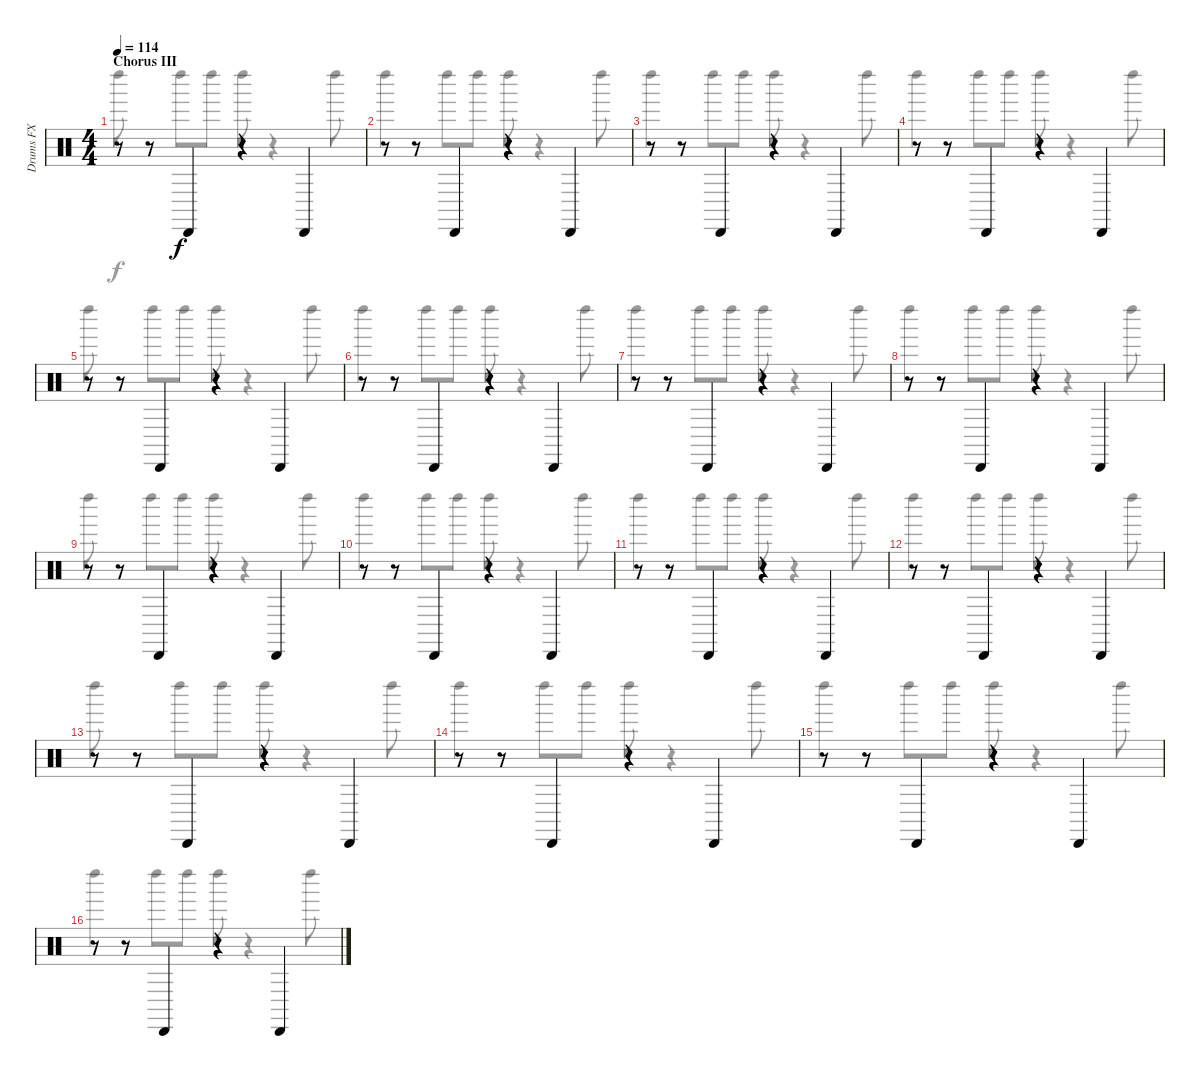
\track ("Drums FX" "Drums FX") {instrument percussion}
\staff {score}
\articulation defaults
\voice
\ts (4 4)
\section ("" "Chorus III")
\tempo 114
\clef neutral
\ks c
r.8{dy f} r.8 "Cabasa (hit)".4 r.4 "Cabasa (hit)".4 |
r.8 r.8 "Cabasa (hit)".4 r.4 "Cabasa (hit)".4 |
r.8 r.8 "Cabasa (hit)".4 r.4 "Cabasa (hit)".4 |
r.8 r.8 "Cabasa (hit)".4 r.4 "Cabasa (hit)".4 |
r.8 r.8 "Cabasa (hit)".4 r.4 "Cabasa (hit)".4 |
r.8 r.8 "Cabasa (hit)".4 r.4 "Cabasa (hit)".4 |
r.8 r.8 "Cabasa (hit)".4 r.4 "Cabasa (hit)".4 |
r.8 r.8 "Cabasa (hit)".4 r.4 "Cabasa (hit)".4 |
r.8 r.8 "Cabasa (hit)".4 r.4 "Cabasa (hit)".4 |
r.8 r.8 "Cabasa (hit)".4 r.4 "Cabasa (hit)".4 |
r.8 r.8 "Cabasa (hit)".4 r.4 "Cabasa (hit)".4 |
r.8 r.8 "Cabasa (hit)".4 r.4 "Cabasa (hit)".4 |
r.8 r.8 "Cabasa (hit)".4 r.4 "Cabasa (hit)".4 |
r.8 r.8 "Cabasa (hit)".4 r.4 "Cabasa (hit)".4 |
r.8 r.8 "Cabasa (hit)".4 r.4 "Cabasa (hit)".4 |
r.8 r.8 "Cabasa (hit)".4 r.4 "Cabasa (hit)".4
\voice
\clef neutral
\ottava regular
\simile none
\ks c "Left Maraca (hit)".8{dy f}
r.8 "Left Maraca (hit)".8 "Left Maraca (hit)".8 "Left Maraca (hit)".8 r.4 "Left Maraca (hit)".8 |
"Left Maraca (hit)".4 "Left Maraca (hit)".8 "Left Maraca (hit)".8 "Left Maraca (hit)".8 r.4 "Left Maraca (hit)".8 |
"Left Maraca (hit)".4 "Left Maraca (hit)".8 "Left Maraca (hit)".8 "Left Maraca (hit)".8 r.4 "Left Maraca (hit)".8 |
"Left Maraca (hit)".4 "Left Maraca (hit)".8 "Left Maraca (hit)".8 "Left Maraca (hit)".8 r.4 "Left Maraca (hit)".8 |
"Left Maraca (hit)".8 r.8 "Left Maraca (hit)".8 "Left Maraca (hit)".8 "Left Maraca (hit)".8 r.4 "Left Maraca (hit)".8 |
"Left Maraca (hit)".4 "Left Maraca (hit)".8 "Left Maraca (hit)".8 "Left Maraca (hit)".8 r.4 "Left Maraca (hit)".8 |
"Left Maraca (hit)".4 "Left Maraca (hit)".8 "Left Maraca (hit)".8 "Left Maraca (hit)".8 r.4 "Left Maraca (hit)".8 |
"Left Maraca (hit)".4 "Left Maraca (hit)".8 "Left Maraca (hit)".8 "Left Maraca (hit)".8 r.4 "Left Maraca (hit)".8 |
"Left Maraca (hit)".8 r.8 "Left Maraca (hit)".8 "Left Maraca (hit)".8 "Left Maraca (hit)".8 r.4 "Left Maraca (hit)".8 |
"Left Maraca (hit)".4 "Left Maraca (hit)".8 "Left Maraca (hit)".8 "Left Maraca (hit)".8 r.4 "Left Maraca (hit)".8 |
"Left Maraca (hit)".4 "Left Maraca (hit)".8 "Left Maraca (hit)".8 "Left Maraca (hit)".8 r.4 "Left Maraca (hit)".8 |
"Left Maraca (hit)".4 "Left Maraca (hit)".8 "Left Maraca (hit)".8 "Left Maraca (hit)".8 r.4 "Left Maraca (hit)".8 |
"Left Maraca (hit)".8 r.8 "Left Maraca (hit)".8 "Left Maraca (hit)".8 "Left Maraca (hit)".8 r.4 "Left Maraca (hit)".8 |
"Left Maraca (hit)".4 "Left Maraca (hit)".8 "Left Maraca (hit)".8 "Left Maraca (hit)".8 r.4 "Left Maraca (hit)".8 |
"Left Maraca (hit)".4 "Left Maraca (hit)".8 "Left Maraca (hit)".8 "Left Maraca (hit)".8 r.4 "Left Maraca (hit)".8 |
"Left Maraca (hit)".4 "Left Maraca (hit)".8 "Left Maraca (hit)".8 "Left Maraca (hit)".8 r.4 "Left Maraca (hit)".8
